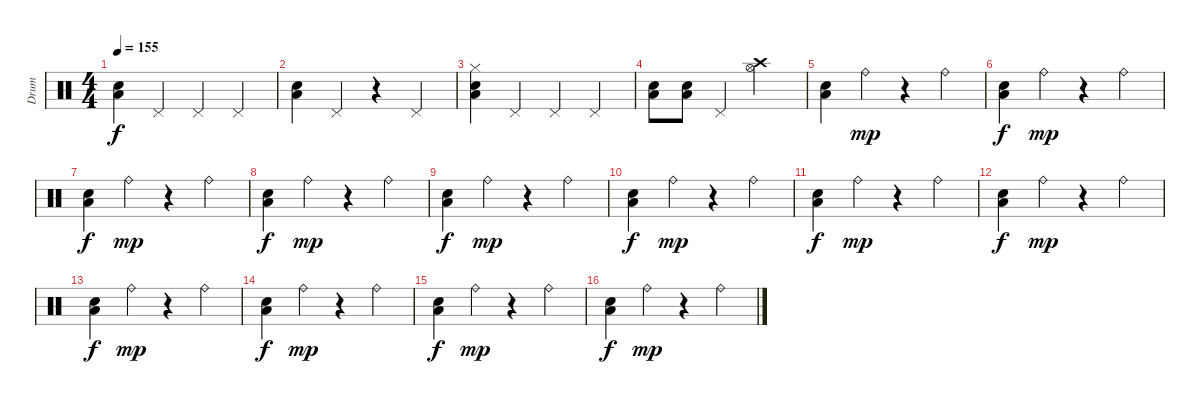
\track ("Drum" "Drum") {instrument percussion}
\staff {score}
\articulation defaults
\ts (4 4)
\tempo 155
\clef neutral
\ks c
("Low Floor Tom (hit)" "Snare (hit) 2").4{dy f} "Pedal Hi-Hat (hit)".4 "Pedal Hi-Hat (hit)".4 "Pedal Hi-Hat (hit)".4 |
("Low Floor Tom (hit)" "Snare (hit) 2").4 "Pedal Hi-Hat (hit)".4 r.4 "Pedal Hi-Hat (hit)".4 |
("Hi-Hat (closed)" "Low Floor Tom (hit)" "Snare (hit) 2").4 "Pedal Hi-Hat (hit)".4 "Pedal Hi-Hat (hit)".4 "Pedal Hi-Hat (hit)".4 |
("Low Floor Tom (hit)" "Snare (hit) 2").8 ("Low Floor Tom (hit)" "Snare (hit) 2").8 "Pedal Hi-Hat (hit)".4 ("Hi-Hat (open)" "Crash high (hit)").2 |
("Low Floor Tom (hit)" "Snare (hit) 2").4 "Ride (bell)".4{dy mp} r.4 "Ride (bell)".4 |
("Low Floor Tom (hit)" "Snare (hit) 2").4{dy f} "Ride (bell)".4{dy mp} r.4 "Ride (bell)".4 |
("Low Floor Tom (hit)" "Snare (hit) 2").4{dy f} "Ride (bell)".4{dy mp} r.4 "Ride (bell)".4 |
("Low Floor Tom (hit)" "Snare (hit) 2").4{dy f} "Ride (bell)".4{dy mp} r.4 "Ride (bell)".4 |
("Low Floor Tom (hit)" "Snare (hit) 2").4{dy f} "Ride (bell)".4{dy mp} r.4 "Ride (bell)".4 |
("Low Floor Tom (hit)" "Snare (hit) 2").4{dy f} "Ride (bell)".4{dy mp} r.4 "Ride (bell)".4 |
("Low Floor Tom (hit)" "Snare (hit) 2").4{dy f} "Ride (bell)".4{dy mp} r.4 "Ride (bell)".4 |
("Low Floor Tom (hit)" "Snare (hit) 2").4{dy f} "Ride (bell)".4{dy mp} r.4 "Ride (bell)".4 |
("Low Floor Tom (hit)" "Snare (hit) 2").4{dy f} "Ride (bell)".4{dy mp} r.4 "Ride (bell)".4 |
("Low Floor Tom (hit)" "Snare (hit) 2").4{dy f} "Ride (bell)".4{dy mp} r.4 "Ride (bell)".4 |
("Low Floor Tom (hit)" "Snare (hit) 2").4{dy f} "Ride (bell)".4{dy mp} r.4 "Ride (bell)".4 |
("Low Floor Tom (hit)" "Snare (hit) 2").4{dy f} "Ride (bell)".4{dy mp} r.4 "Ride (bell)".4
